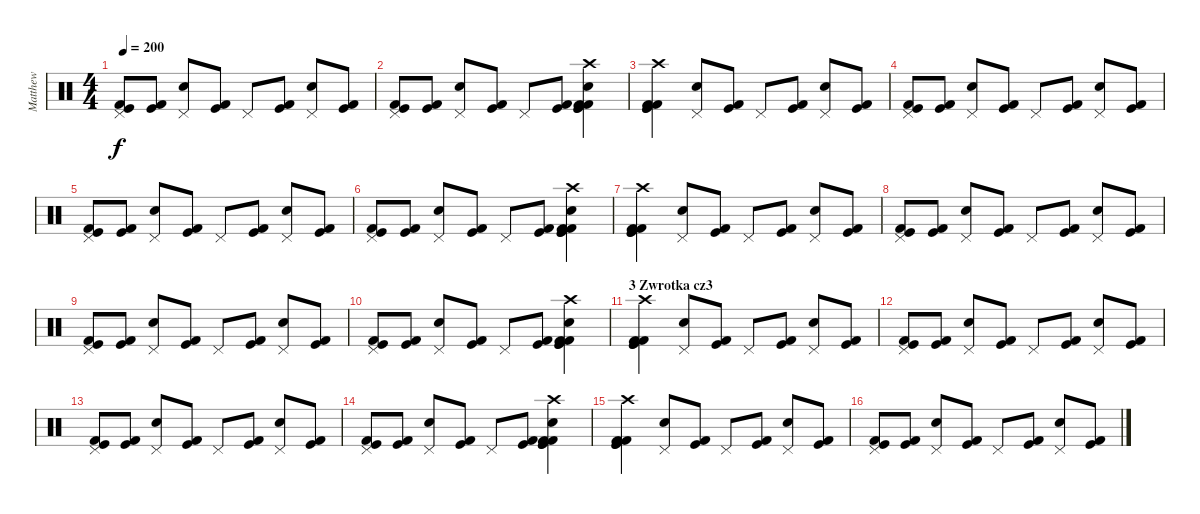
\track ("Matthew" "Matthew") {instrument percussion}
\staff {score}
\articulation defaults
\ts (4 4)
\tempo 200
\clef neutral
\ks c
("Kick (hit) 2" "Kick (hit)" "Pedal Hi-Hat (hit)").8{dy f} ("Kick (hit) 2" "Kick (hit)").8 ("Snare (hit) 2" "Pedal Hi-Hat (hit)").8 ("Kick (hit) 2" "Kick (hit)").8 "Pedal Hi-Hat (hit)".8 ("Kick (hit) 2" "Kick (hit)").8 ("Pedal Hi-Hat (hit)" "Snare (hit) 2").8 ("Kick (hit) 2" "Kick (hit)").8 |
("Kick (hit) 2" "Kick (hit)" "Pedal Hi-Hat (hit)").8 ("Kick (hit) 2" "Kick (hit)").8 ("Snare (hit) 2" "Pedal Hi-Hat (hit)").8 ("Kick (hit) 2" "Kick (hit)").8 "Pedal Hi-Hat (hit)".8 ("Kick (hit) 2" "Kick (hit)").8 ("Kick (hit)" "Snare (hit) 2" "Crash high (hit)" "Kick (hit) 2" "Kick (hit)" "Kick (hit) 2").4 |
("Kick (hit) 2" "Kick (hit)" "Kick (hit)" "Kick (hit) 2" "Crash high (hit)").4 ("Pedal Hi-Hat (hit)" "Snare (hit) 2").8 ("Kick (hit)" "Kick (hit) 2").8 "Pedal Hi-Hat (hit)".8 ("Kick (hit)" "Kick (hit) 2").8 ("Snare (hit) 2" "Pedal Hi-Hat (hit)").8 ("Kick (hit)" "Kick (hit) 2").8 |
("Kick (hit) 2" "Kick (hit)" "Pedal Hi-Hat (hit)").8 ("Kick (hit) 2" "Kick (hit)").8 ("Snare (hit) 2" "Pedal Hi-Hat (hit)").8 ("Kick (hit) 2" "Kick (hit)").8 "Pedal Hi-Hat (hit)".8 ("Kick (hit) 2" "Kick (hit)").8 ("Pedal Hi-Hat (hit)" "Snare (hit) 2").8 ("Kick (hit) 2" "Kick (hit)").8 |
("Kick (hit) 2" "Kick (hit)" "Pedal Hi-Hat (hit)").8 ("Kick (hit) 2" "Kick (hit)").8 ("Snare (hit) 2" "Pedal Hi-Hat (hit)").8 ("Kick (hit) 2" "Kick (hit)").8 "Pedal Hi-Hat (hit)".8 ("Kick (hit) 2" "Kick (hit)").8 ("Pedal Hi-Hat (hit)" "Snare (hit) 2").8 ("Kick (hit) 2" "Kick (hit)").8 |
("Kick (hit) 2" "Kick (hit)" "Pedal Hi-Hat (hit)").8 ("Kick (hit) 2" "Kick (hit)").8 ("Snare (hit) 2" "Pedal Hi-Hat (hit)").8 ("Kick (hit) 2" "Kick (hit)").8 "Pedal Hi-Hat (hit)".8 ("Kick (hit) 2" "Kick (hit)").8 ("Kick (hit)" "Snare (hit) 2" "Crash high (hit)" "Kick (hit) 2" "Kick (hit)" "Kick (hit) 2").4 |
("Kick (hit) 2" "Kick (hit)" "Kick (hit)" "Kick (hit) 2" "Crash high (hit)").4 ("Pedal Hi-Hat (hit)" "Snare (hit) 2").8 ("Kick (hit)" "Kick (hit) 2").8 "Pedal Hi-Hat (hit)".8 ("Kick (hit)" "Kick (hit) 2").8 ("Snare (hit) 2" "Pedal Hi-Hat (hit)").8 ("Kick (hit)" "Kick (hit) 2").8 |
("Kick (hit) 2" "Kick (hit)" "Pedal Hi-Hat (hit)").8 ("Kick (hit) 2" "Kick (hit)").8 ("Snare (hit) 2" "Pedal Hi-Hat (hit)").8 ("Kick (hit) 2" "Kick (hit)").8 "Pedal Hi-Hat (hit)".8 ("Kick (hit) 2" "Kick (hit)").8 ("Pedal Hi-Hat (hit)" "Snare (hit) 2").8 ("Kick (hit) 2" "Kick (hit)").8 |
("Kick (hit) 2" "Kick (hit)" "Pedal Hi-Hat (hit)").8 ("Kick (hit) 2" "Kick (hit)").8 ("Snare (hit) 2" "Pedal Hi-Hat (hit)").8 ("Kick (hit) 2" "Kick (hit)").8 "Pedal Hi-Hat (hit)".8 ("Kick (hit) 2" "Kick (hit)").8 ("Pedal Hi-Hat (hit)" "Snare (hit) 2").8 ("Kick (hit) 2" "Kick (hit)").8 |
("Kick (hit) 2" "Kick (hit)" "Pedal Hi-Hat (hit)").8 ("Kick (hit) 2" "Kick (hit)").8 ("Snare (hit) 2" "Pedal Hi-Hat (hit)").8 ("Kick (hit) 2" "Kick (hit)").8 "Pedal Hi-Hat (hit)".8 ("Kick (hit) 2" "Kick (hit)").8 ("Kick (hit)" "Snare (hit) 2" "Crash high (hit)" "Kick (hit) 2" "Kick (hit)" "Kick (hit) 2").4 |
\section ("" "3 Zwrotka cz3")
("Kick (hit) 2" "Kick (hit)" "Kick (hit)" "Kick (hit) 2" "Crash high (hit)").4 ("Pedal Hi-Hat (hit)" "Snare (hit) 2").8 ("Kick (hit)" "Kick (hit) 2").8 "Pedal Hi-Hat (hit)".8 ("Kick (hit)" "Kick (hit) 2").8 ("Snare (hit) 2" "Pedal Hi-Hat (hit)").8 ("Kick (hit)" "Kick (hit) 2").8 |
("Kick (hit) 2" "Kick (hit)" "Pedal Hi-Hat (hit)").8 ("Kick (hit) 2" "Kick (hit)").8 ("Snare (hit) 2" "Pedal Hi-Hat (hit)").8 ("Kick (hit) 2" "Kick (hit)").8 "Pedal Hi-Hat (hit)".8 ("Kick (hit) 2" "Kick (hit)").8 ("Pedal Hi-Hat (hit)" "Snare (hit) 2").8 ("Kick (hit) 2" "Kick (hit)").8 |
("Kick (hit) 2" "Kick (hit)" "Pedal Hi-Hat (hit)").8 ("Kick (hit) 2" "Kick (hit)").8 ("Snare (hit) 2" "Pedal Hi-Hat (hit)").8 ("Kick (hit) 2" "Kick (hit)").8 "Pedal Hi-Hat (hit)".8 ("Kick (hit) 2" "Kick (hit)").8 ("Pedal Hi-Hat (hit)" "Snare (hit) 2").8 ("Kick (hit) 2" "Kick (hit)").8 |
("Kick (hit) 2" "Kick (hit)" "Pedal Hi-Hat (hit)").8 ("Kick (hit) 2" "Kick (hit)").8 ("Snare (hit) 2" "Pedal Hi-Hat (hit)").8 ("Kick (hit) 2" "Kick (hit)").8 "Pedal Hi-Hat (hit)".8 ("Kick (hit) 2" "Kick (hit)").8 ("Kick (hit)" "Snare (hit) 2" "Crash high (hit)" "Kick (hit) 2" "Kick (hit)" "Kick (hit) 2").4 |
("Kick (hit) 2" "Kick (hit)" "Kick (hit)" "Kick (hit) 2" "Crash high (hit)").4 ("Pedal Hi-Hat (hit)" "Snare (hit) 2").8 ("Kick (hit)" "Kick (hit) 2").8 "Pedal Hi-Hat (hit)".8 ("Kick (hit)" "Kick (hit) 2").8 ("Snare (hit) 2" "Pedal Hi-Hat (hit)").8 ("Kick (hit)" "Kick (hit) 2").8 |
("Kick (hit) 2" "Kick (hit)" "Pedal Hi-Hat (hit)").8 ("Kick (hit) 2" "Kick (hit)").8 ("Snare (hit) 2" "Pedal Hi-Hat (hit)").8 ("Kick (hit) 2" "Kick (hit)").8 "Pedal Hi-Hat (hit)".8 ("Kick (hit) 2" "Kick (hit)").8 ("Pedal Hi-Hat (hit)" "Snare (hit) 2").8 ("Kick (hit) 2" "Kick (hit)").8
